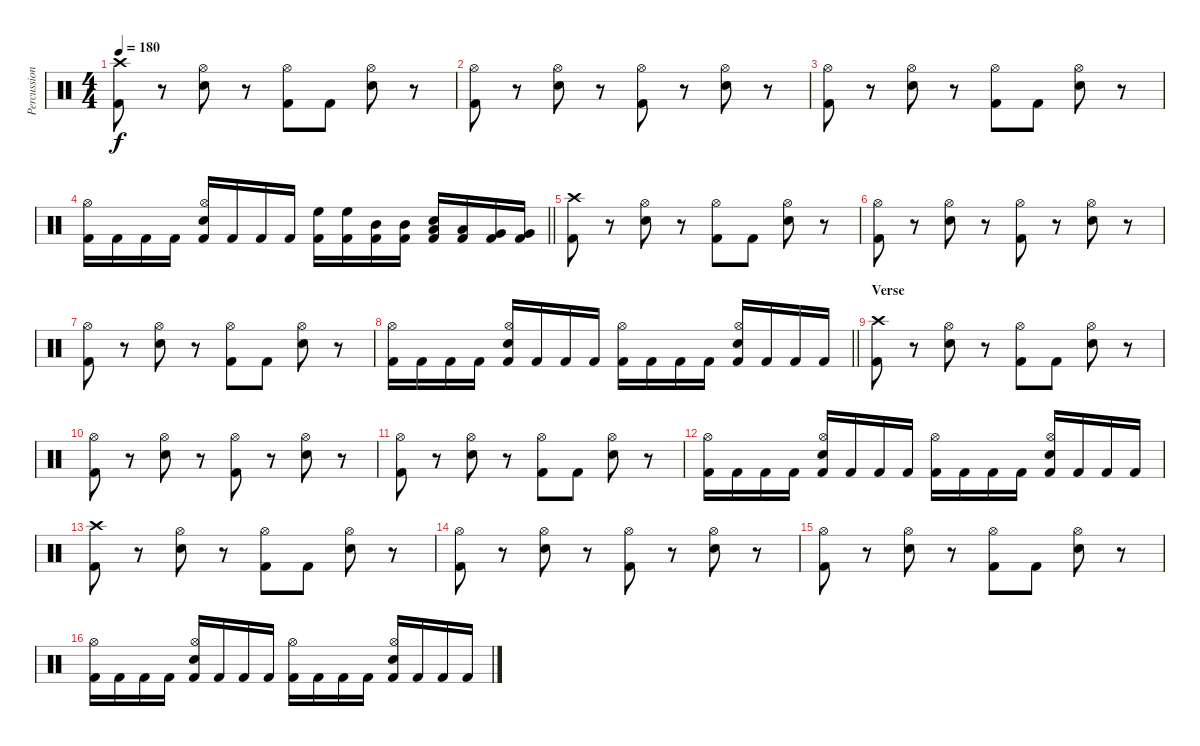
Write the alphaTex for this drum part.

\track ("Percussion" "Percussion") {instrument percussion}
\staff {score}
\articulation defaults
\ts (4 4)
\tempo 180
\clef neutral
\ks c
("Crash high (hit)" "Kick (hit) 2").8{dy f} r.8 ("Hi-Hat (open)" "Snare (hit) 2").8 r.8 ("Hi-Hat (open)" "Kick (hit) 2").8 "Kick (hit) 2".8 ("Hi-Hat (open)" "Snare (hit) 2").8 r.8 |
("Hi-Hat (open)" "Kick (hit) 2").8 r.8 ("Hi-Hat (open)" "Snare (hit) 2").8 r.8 ("Hi-Hat (open)" "Kick (hit) 2").8 r.8 ("Hi-Hat (open)" "Snare (hit) 2").8 r.8 |
("Hi-Hat (open)" "Kick (hit) 2").8 r.8 ("Hi-Hat (open)" "Snare (hit) 2").8 r.8 ("Hi-Hat (open)" "Kick (hit) 2").8 "Kick (hit) 2".8 ("Hi-Hat (open)" "Snare (hit) 2").8 r.8 |
\barLineRight lightlight
("Hi-Hat (open)" "Kick (hit) 2").16 "Kick (hit) 2".16 "Kick (hit) 2".16 "Kick (hit) 2".16 ("Hi-Hat (open)" "Snare (hit) 2" "Kick (hit) 2").16 "Kick (hit) 2".16 "Kick (hit) 2".16 "Kick (hit) 2".16 ("High Floor Tom (hit)" "Kick (hit) 2").16 ("High Floor Tom (hit)" "Kick (hit) 2").16 ("Mid Tom (hit)" "Kick (hit) 2").16 ("Mid Tom (hit)" "Kick (hit) 2").16 ("Low Tom (hit)" "Snare (hit) 2" "Kick (hit) 2").16 ("Low Tom (hit)" "Kick (hit) 2").16 ("Very Low Tom (hit)" "Kick (hit) 2").16 ("Very Low Tom (hit)" "Kick (hit) 2").16 |
("Crash high (hit)" "Kick (hit) 2").8 r.8 ("Hi-Hat (open)" "Snare (hit) 2").8 r.8 ("Hi-Hat (open)" "Kick (hit) 2").8 "Kick (hit) 2".8 ("Hi-Hat (open)" "Snare (hit) 2").8 r.8 |
("Hi-Hat (open)" "Kick (hit) 2").8 r.8 ("Hi-Hat (open)" "Snare (hit) 2").8 r.8 ("Hi-Hat (open)" "Kick (hit) 2").8 r.8 ("Hi-Hat (open)" "Snare (hit) 2").8 r.8 |
("Hi-Hat (open)" "Kick (hit) 2").8 r.8 ("Hi-Hat (open)" "Snare (hit) 2").8 r.8 ("Hi-Hat (open)" "Kick (hit) 2").8 "Kick (hit) 2".8 ("Hi-Hat (open)" "Snare (hit) 2").8 r.8 |
\barLineRight lightlight
("Hi-Hat (open)" "Kick (hit) 2").16 "Kick (hit) 2".16 "Kick (hit) 2".16 "Kick (hit) 2".16 ("Hi-Hat (open)" "Snare (hit) 2" "Kick (hit) 2").16 "Kick (hit) 2".16 "Kick (hit) 2".16 "Kick (hit) 2".16 ("Hi-Hat (open)" "Kick (hit) 2").16 "Kick (hit) 2".16 "Kick (hit) 2".16 "Kick (hit) 2".16 ("Hi-Hat (open)" "Snare (hit) 2" "Kick (hit) 2").16 "Kick (hit) 2".16 "Kick (hit) 2".16 "Kick (hit) 2".16 |
\section ("" "Verse")
("Crash high (hit)" "Kick (hit) 2").8 r.8 ("Hi-Hat (open)" "Snare (hit) 2").8 r.8 ("Hi-Hat (open)" "Kick (hit) 2").8 "Kick (hit) 2".8 ("Hi-Hat (open)" "Snare (hit) 2").8 r.8 |
("Hi-Hat (open)" "Kick (hit) 2").8 r.8 ("Hi-Hat (open)" "Snare (hit) 2").8 r.8 ("Hi-Hat (open)" "Kick (hit) 2").8 r.8 ("Hi-Hat (open)" "Snare (hit) 2").8 r.8 |
("Hi-Hat (open)" "Kick (hit) 2").8 r.8 ("Hi-Hat (open)" "Snare (hit) 2").8 r.8 ("Hi-Hat (open)" "Kick (hit) 2").8 "Kick (hit) 2".8 ("Hi-Hat (open)" "Snare (hit) 2").8 r.8 |
("Hi-Hat (open)" "Kick (hit) 2").16 "Kick (hit) 2".16 "Kick (hit) 2".16 "Kick (hit) 2".16 ("Hi-Hat (open)" "Snare (hit) 2" "Kick (hit) 2").16 "Kick (hit) 2".16 "Kick (hit) 2".16 "Kick (hit) 2".16 ("Hi-Hat (open)" "Kick (hit) 2").16 "Kick (hit) 2".16 "Kick (hit) 2".16 "Kick (hit) 2".16 ("Hi-Hat (open)" "Snare (hit) 2" "Kick (hit) 2").16 "Kick (hit) 2".16 "Kick (hit) 2".16 "Kick (hit) 2".16 |
("Crash high (hit)" "Kick (hit) 2").8 r.8 ("Hi-Hat (open)" "Snare (hit) 2").8 r.8 ("Hi-Hat (open)" "Kick (hit) 2").8 "Kick (hit) 2".8 ("Hi-Hat (open)" "Snare (hit) 2").8 r.8 |
("Hi-Hat (open)" "Kick (hit) 2").8 r.8 ("Hi-Hat (open)" "Snare (hit) 2").8 r.8 ("Hi-Hat (open)" "Kick (hit) 2").8 r.8 ("Hi-Hat (open)" "Snare (hit) 2").8 r.8 |
("Hi-Hat (open)" "Kick (hit) 2").8 r.8 ("Hi-Hat (open)" "Snare (hit) 2").8 r.8 ("Hi-Hat (open)" "Kick (hit) 2").8 "Kick (hit) 2".8 ("Hi-Hat (open)" "Snare (hit) 2").8 r.8 |
("Hi-Hat (open)" "Kick (hit) 2").16 "Kick (hit) 2".16 "Kick (hit) 2".16 "Kick (hit) 2".16 ("Hi-Hat (open)" "Snare (hit) 2" "Kick (hit) 2").16 "Kick (hit) 2".16 "Kick (hit) 2".16 "Kick (hit) 2".16 ("Hi-Hat (open)" "Kick (hit) 2").16 "Kick (hit) 2".16 "Kick (hit) 2".16 "Kick (hit) 2".16 ("Hi-Hat (open)" "Snare (hit) 2" "Kick (hit) 2").16 "Kick (hit) 2".16 "Kick (hit) 2".16 "Kick (hit) 2".16
